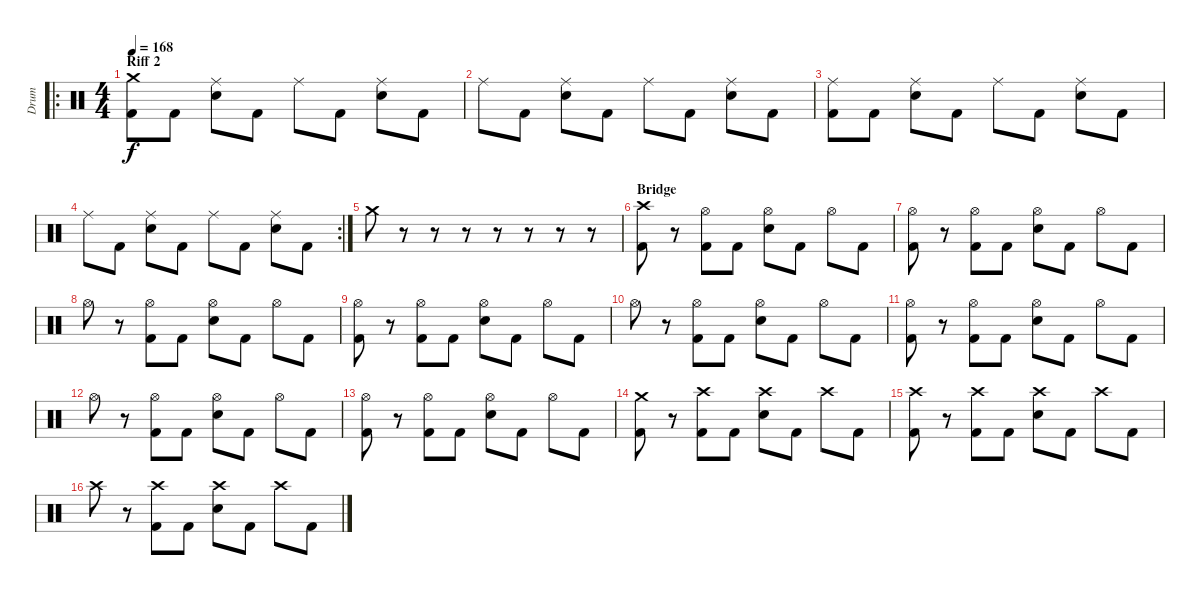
\track ("Drum" "Drum") {instrument percussion}
\staff {score}
\articulation defaults
\ro
\ts (4 4)
\section ("" "Riff 2")
\tempo 168
\clef neutral
\ks c
("Crash medium (hit)" "Kick (hit) 2").8{dy f} "Kick (hit) 2".8 ("Ride (middle)" "Electric Snare (hit)").8 "Kick (hit) 2".8 "Ride (middle)".8 "Kick (hit) 2".8 ("Ride (middle)" "Electric Snare (hit)").8 "Kick (hit) 2".8 |
"Ride (middle)".8 "Kick (hit) 2".8 ("Ride (middle)" "Electric Snare (hit)").8 "Kick (hit) 2".8 "Ride (middle)".8 "Kick (hit) 2".8 ("Ride (middle)" "Electric Snare (hit)").8 "Kick (hit) 2".8 |
("Ride (middle)" "Kick (hit) 2").8 "Kick (hit) 2".8 ("Ride (middle)" "Electric Snare (hit)").8 "Kick (hit) 2".8 "Ride (middle)".8 "Kick (hit) 2".8 ("Ride (middle)" "Electric Snare (hit)").8 "Kick (hit) 2".8 |
\rc 2 "Ride (middle)".8 "Kick (hit) 2".8
("Ride (middle)" "Electric Snare (hit)").8 "Kick (hit) 2".8 "Ride (middle)".8 "Kick (hit) 2".8 ("Ride (middle)" "Electric Snare (hit)").8 "Kick (hit) 2".8 |
"Crash medium (hit)".8 r.8 r.8 r.8 r.8 r.8 r.8 r.8 |
\section ("" "Bridge")
("Crash high (hit)" "Kick (hit) 2").8 r.8 ("Hi-Hat (open)" "Kick (hit) 2").8 "Kick (hit) 2".8 ("Hi-Hat (open)" "Electric Snare (hit)").8 "Kick (hit) 2".8 "Hi-Hat (open)".8 "Kick (hit) 2".8 |
("Hi-Hat (open)" "Kick (hit) 2").8 r.8 ("Hi-Hat (open)" "Kick (hit) 2").8 "Kick (hit) 2".8 ("Hi-Hat (open)" "Electric Snare (hit)").8 "Kick (hit) 2".8 "Hi-Hat (open)".8 "Kick (hit) 2".8 |
"Hi-Hat (open)".8 r.8 ("Hi-Hat (open)" "Kick (hit) 2").8 "Kick (hit) 2".8 ("Hi-Hat (open)" "Electric Snare (hit)").8 "Kick (hit) 2".8 "Hi-Hat (open)".8 "Kick (hit) 2".8 |
("Hi-Hat (open)" "Kick (hit) 2").8 r.8 ("Hi-Hat (open)" "Kick (hit) 2").8 "Kick (hit) 2".8 ("Hi-Hat (open)" "Electric Snare (hit)").8 "Kick (hit) 2".8 "Hi-Hat (open)".8 "Kick (hit) 2".8 |
"Hi-Hat (open)".8 r.8 ("Hi-Hat (open)" "Kick (hit) 2").8 "Kick (hit) 2".8 ("Hi-Hat (open)" "Electric Snare (hit)").8 "Kick (hit) 2".8 "Hi-Hat (open)".8 "Kick (hit) 2".8 |
("Hi-Hat (open)" "Kick (hit) 2").8 r.8 ("Hi-Hat (open)" "Kick (hit) 2").8 "Kick (hit) 2".8 ("Hi-Hat (open)" "Electric Snare (hit)").8 "Kick (hit) 2".8 "Hi-Hat (open)".8 "Kick (hit) 2".8 |
"Hi-Hat (open)".8 r.8 ("Hi-Hat (open)" "Kick (hit) 2").8 "Kick (hit) 2".8 ("Hi-Hat (open)" "Electric Snare (hit)").8 "Kick (hit) 2".8 "Hi-Hat (open)".8 "Kick (hit) 2".8 |
("Hi-Hat (open)" "Kick (hit) 2").8 r.8 ("Hi-Hat (open)" "Kick (hit) 2").8 "Kick (hit) 2".8 ("Hi-Hat (open)" "Electric Snare (hit)").8 "Kick (hit) 2".8 "Hi-Hat (open)".8 "Kick (hit) 2".8 |
("Crash medium (hit)" "Kick (hit) 2").8 r.8 ("Crash high (hit)" "Kick (hit) 2").8 "Kick (hit) 2".8 ("Crash high (hit)" "Electric Snare (hit)").8 "Kick (hit) 2".8 "Crash high (hit)".8 "Kick (hit) 2".8 |
("Crash high (hit)" "Kick (hit) 2").8 r.8 ("Crash high (hit)" "Kick (hit) 2").8 "Kick (hit) 2".8 ("Crash high (hit)" "Electric Snare (hit)").8 "Kick (hit) 2".8 "Crash high (hit)".8 "Kick (hit) 2".8 |
"Crash high (hit)".8 r.8 ("Crash high (hit)" "Kick (hit) 2").8 "Kick (hit) 2".8 ("Crash high (hit)" "Electric Snare (hit)").8 "Kick (hit) 2".8 "Crash high (hit)".8 "Kick (hit) 2".8
